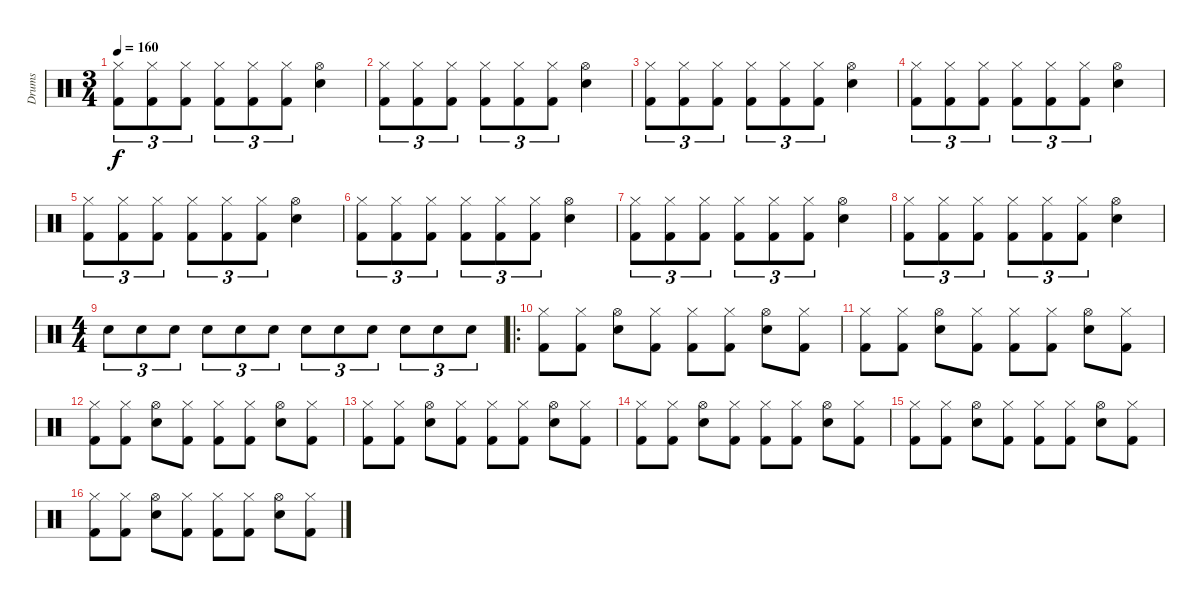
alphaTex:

\track ("Drums" "Drums") {instrument percussion}
\staff {score}
\articulation defaults
\ts (3 4)
\tempo 160
\clef neutral
\ks c
("Hi-Hat (closed)" "Kick (hit) 2").8{tu (3 2) dy f} ("Hi-Hat (closed)" "Kick (hit) 2").8{tu (3 2)} ("Hi-Hat (closed)" "Kick (hit) 2").8{tu (3 2)} ("Hi-Hat (closed)" "Kick (hit) 2").8{tu (3 2)} ("Hi-Hat (closed)" "Kick (hit) 2").8{tu (3 2)} ("Hi-Hat (closed)" "Kick (hit) 2").8{tu (3 2)} ("Hi-Hat (open)" "Snare (hit) 2").4 |
("Hi-Hat (closed)" "Kick (hit) 2").8{tu (3 2)} ("Hi-Hat (closed)" "Kick (hit) 2").8{tu (3 2)} ("Hi-Hat (closed)" "Kick (hit) 2").8{tu (3 2)} ("Hi-Hat (closed)" "Kick (hit) 2").8{tu (3 2)} ("Hi-Hat (closed)" "Kick (hit) 2").8{tu (3 2)} ("Hi-Hat (closed)" "Kick (hit) 2").8{tu (3 2)} ("Hi-Hat (open)" "Snare (hit) 2").4 |
("Hi-Hat (closed)" "Kick (hit) 2").8{tu (3 2)} ("Hi-Hat (closed)" "Kick (hit) 2").8{tu (3 2)} ("Hi-Hat (closed)" "Kick (hit) 2").8{tu (3 2)} ("Hi-Hat (closed)" "Kick (hit) 2").8{tu (3 2)} ("Hi-Hat (closed)" "Kick (hit) 2").8{tu (3 2)} ("Hi-Hat (closed)" "Kick (hit) 2").8{tu (3 2)} ("Hi-Hat (open)" "Snare (hit) 2").4 |
("Hi-Hat (closed)" "Kick (hit) 2").8{tu (3 2)} ("Hi-Hat (closed)" "Kick (hit) 2").8{tu (3 2)} ("Hi-Hat (closed)" "Kick (hit) 2").8{tu (3 2)} ("Hi-Hat (closed)" "Kick (hit) 2").8{tu (3 2)} ("Hi-Hat (closed)" "Kick (hit) 2").8{tu (3 2)} ("Hi-Hat (closed)" "Kick (hit) 2").8{tu (3 2)} ("Hi-Hat (open)" "Snare (hit) 2").4 |
("Hi-Hat (closed)" "Kick (hit) 2").8{tu (3 2)} ("Hi-Hat (closed)" "Kick (hit) 2").8{tu (3 2)} ("Hi-Hat (closed)" "Kick (hit) 2").8{tu (3 2)} ("Hi-Hat (closed)" "Kick (hit) 2").8{tu (3 2)} ("Hi-Hat (closed)" "Kick (hit) 2").8{tu (3 2)} ("Hi-Hat (closed)" "Kick (hit) 2").8{tu (3 2)} ("Hi-Hat (open)" "Snare (hit) 2").4 |
("Hi-Hat (closed)" "Kick (hit) 2").8{tu (3 2)} ("Hi-Hat (closed)" "Kick (hit) 2").8{tu (3 2)} ("Hi-Hat (closed)" "Kick (hit) 2").8{tu (3 2)} ("Hi-Hat (closed)" "Kick (hit) 2").8{tu (3 2)} ("Hi-Hat (closed)" "Kick (hit) 2").8{tu (3 2)} ("Hi-Hat (closed)" "Kick (hit) 2").8{tu (3 2)} ("Hi-Hat (open)" "Snare (hit) 2").4 |
("Hi-Hat (closed)" "Kick (hit) 2").8{tu (3 2)} ("Hi-Hat (closed)" "Kick (hit) 2").8{tu (3 2)} ("Hi-Hat (closed)" "Kick (hit) 2").8{tu (3 2)} ("Hi-Hat (closed)" "Kick (hit) 2").8{tu (3 2)} ("Hi-Hat (closed)" "Kick (hit) 2").8{tu (3 2)} ("Hi-Hat (closed)" "Kick (hit) 2").8{tu (3 2)} ("Hi-Hat (open)" "Snare (hit) 2").4 |
("Hi-Hat (closed)" "Kick (hit) 2").8{tu (3 2)} ("Hi-Hat (closed)" "Kick (hit) 2").8{tu (3 2)} ("Hi-Hat (closed)" "Kick (hit) 2").8{tu (3 2)} ("Hi-Hat (closed)" "Kick (hit) 2").8{tu (3 2)} ("Hi-Hat (closed)" "Kick (hit) 2").8{tu (3 2)} ("Hi-Hat (closed)" "Kick (hit) 2").8{tu (3 2)} ("Hi-Hat (open)" "Snare (hit) 2").4 |
\ts (4 4)
"Snare (hit) 2".8{tu (3 2)} "Snare (hit) 2".8{tu (3 2)} "Snare (hit) 2".8{tu (3 2)} "Snare (hit) 2".8{tu (3 2)} "Snare (hit) 2".8{tu (3 2)} "Snare (hit) 2".8{tu (3 2)} "Snare (hit) 2".8{tu (3 2)} "Snare (hit) 2".8{tu (3 2)} "Snare (hit) 2".8{tu (3 2)} "Snare (hit) 2".8{tu (3 2)} "Snare (hit) 2".8{tu (3 2)} "Snare (hit) 2".8{tu (3 2)} |
\ro
("Hi-Hat (closed)" "Kick (hit) 2").8 ("Hi-Hat (closed)" "Kick (hit) 2").8 ("Hi-Hat (open)" "Snare (hit) 2").8 ("Hi-Hat (closed)" "Kick (hit) 2").8 ("Hi-Hat (closed)" "Kick (hit) 2").8 ("Hi-Hat (closed)" "Kick (hit) 2").8 ("Hi-Hat (open)" "Snare (hit) 2").8 ("Hi-Hat (closed)" "Kick (hit) 2").8 |
("Hi-Hat (closed)" "Kick (hit) 2").8 ("Hi-Hat (closed)" "Kick (hit) 2").8 ("Hi-Hat (open)" "Snare (hit) 2").8 ("Hi-Hat (closed)" "Kick (hit) 2").8 ("Hi-Hat (closed)" "Kick (hit) 2").8 ("Hi-Hat (closed)" "Kick (hit) 2").8 ("Hi-Hat (open)" "Snare (hit) 2").8 ("Hi-Hat (closed)" "Kick (hit) 2").8 |
("Hi-Hat (closed)" "Kick (hit) 2").8 ("Hi-Hat (closed)" "Kick (hit) 2").8 ("Hi-Hat (open)" "Snare (hit) 2").8 ("Hi-Hat (closed)" "Kick (hit) 2").8 ("Hi-Hat (closed)" "Kick (hit) 2").8 ("Hi-Hat (closed)" "Kick (hit) 2").8 ("Hi-Hat (open)" "Snare (hit) 2").8 ("Hi-Hat (closed)" "Kick (hit) 2").8 |
("Hi-Hat (closed)" "Kick (hit) 2").8 ("Hi-Hat (closed)" "Kick (hit) 2").8 ("Hi-Hat (open)" "Snare (hit) 2").8 ("Hi-Hat (closed)" "Kick (hit) 2").8 ("Hi-Hat (closed)" "Kick (hit) 2").8 ("Hi-Hat (closed)" "Kick (hit) 2").8 ("Hi-Hat (open)" "Snare (hit) 2").8 ("Hi-Hat (closed)" "Kick (hit) 2").8 |
("Hi-Hat (closed)" "Kick (hit) 2").8 ("Hi-Hat (closed)" "Kick (hit) 2").8 ("Hi-Hat (open)" "Snare (hit) 2").8 ("Hi-Hat (closed)" "Kick (hit) 2").8 ("Hi-Hat (closed)" "Kick (hit) 2").8 ("Hi-Hat (closed)" "Kick (hit) 2").8 ("Hi-Hat (open)" "Snare (hit) 2").8 ("Hi-Hat (closed)" "Kick (hit) 2").8 |
("Hi-Hat (closed)" "Kick (hit) 2").8 ("Hi-Hat (closed)" "Kick (hit) 2").8 ("Hi-Hat (open)" "Snare (hit) 2").8 ("Hi-Hat (closed)" "Kick (hit) 2").8 ("Hi-Hat (closed)" "Kick (hit) 2").8 ("Hi-Hat (closed)" "Kick (hit) 2").8 ("Hi-Hat (open)" "Snare (hit) 2").8 ("Hi-Hat (closed)" "Kick (hit) 2").8 |
("Hi-Hat (closed)" "Kick (hit) 2").8 ("Hi-Hat (closed)" "Kick (hit) 2").8 ("Hi-Hat (open)" "Snare (hit) 2").8 ("Hi-Hat (closed)" "Kick (hit) 2").8 ("Hi-Hat (closed)" "Kick (hit) 2").8 ("Hi-Hat (closed)" "Kick (hit) 2").8 ("Hi-Hat (open)" "Snare (hit) 2").8 ("Hi-Hat (closed)" "Kick (hit) 2").8
